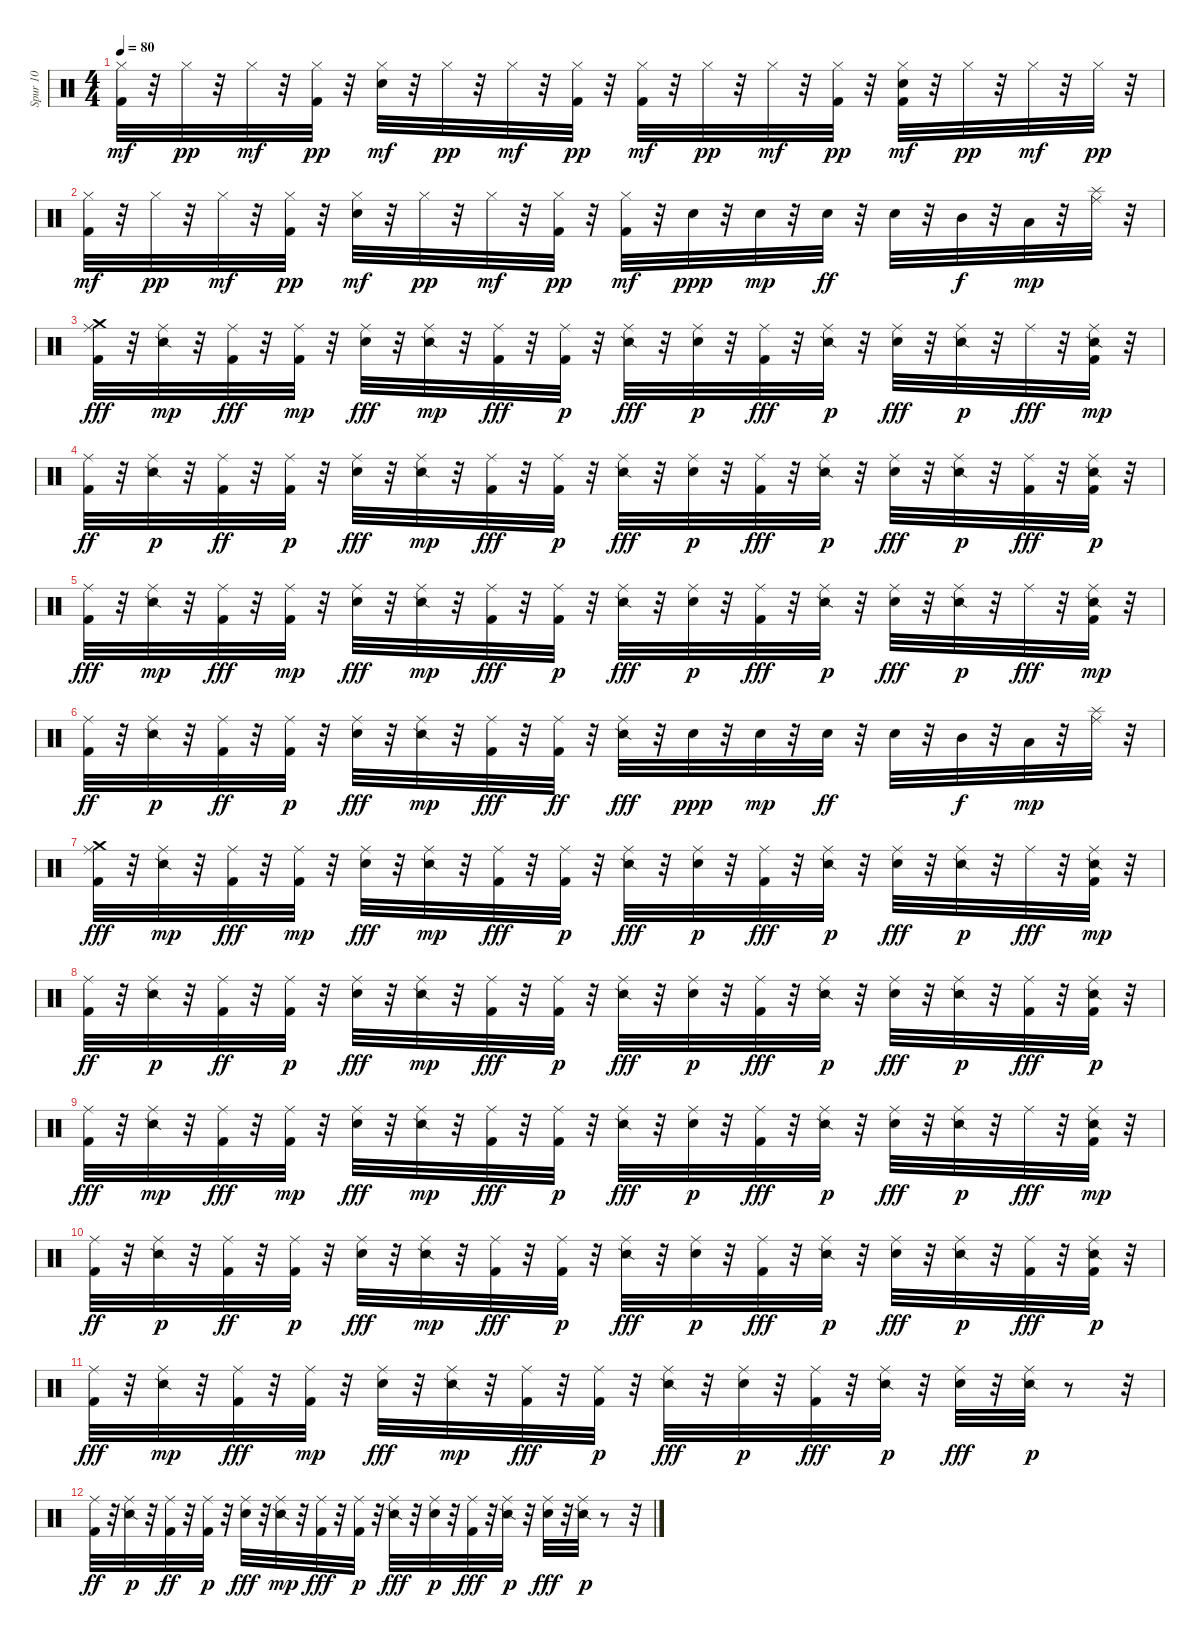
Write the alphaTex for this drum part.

\track ("Spur 10" "Spur 10") {instrument percussion}
\staff {score}
\articulation defaults
\ts (4 4)
\tempo 80
\clef neutral
\ks c
("Kick (hit) 2" "Hi-Hat (closed)").32{dy mf} r.32 "Hi-Hat (closed)".32{dy pp} r.32 "Hi-Hat (closed)".32{dy mf} r.32 ("Kick (hit) 2" "Hi-Hat (closed)").32{dy pp} r.32 ("Electric Snare (hit)" "Hi-Hat (closed)").32{dy mf} r.32 "Hi-Hat (closed)".32{dy pp} r.32 "Hi-Hat (closed)".32{dy mf} r.32 ("Kick (hit) 2" "Hi-Hat (closed)").32{dy pp} r.32 ("Kick (hit) 2" "Hi-Hat (closed)").32{dy mf} r.32 "Hi-Hat (closed)".32{dy pp} r.32 "Hi-Hat (closed)".32{dy mf} r.32 ("Kick (hit) 2" "Hi-Hat (closed)").32{dy pp} r.32 ("Kick (hit) 2" "Electric Snare (hit)" "Hi-Hat (closed)").32{dy mf} r.32 "Hi-Hat (closed)".32{dy pp} r.32 "Hi-Hat (closed)".32{dy mf} r.32 "Hi-Hat (closed)".32{dy pp} r.32 |
("Kick (hit) 2" "Hi-Hat (closed)").32{dy mf} r.32 "Hi-Hat (closed)".32{dy pp} r.32 "Hi-Hat (closed)".32{dy mf} r.32 ("Kick (hit) 2" "Hi-Hat (closed)").32{dy pp} r.32 ("Electric Snare (hit)" "Hi-Hat (closed)").32{dy mf} r.32 "Hi-Hat (closed)".32{dy pp} r.32 "Hi-Hat (closed)".32{dy mf} r.32 ("Kick (hit) 2" "Hi-Hat (closed)").32{dy pp} r.32 ("Kick (hit) 2" "Hi-Hat (closed)").32{dy mf} r.32 "Electric Snare (hit)".32{dy ppp} r.32 "Electric Snare (hit)".32{dy mp} r.32 "Electric Snare (hit)".32{dy ff} r.32 "Electric Snare (hit)".32 r.32 "Mid Tom (hit)".32{dy f} r.32 "Low Tom (hit)".32{dy mp} r.32 ("Ride (middle)" "Splash (hit)").32 r.32 |
("Crash medium (hit)" "Kick (hit) 2" "Ride (middle)").32{dy fff} r.32 ("Snare (side stick) 2" "Ride (middle)").32{dy mp} r.32 ("Kick (hit) 2" "Ride (middle)").32{dy fff} r.32 ("Kick (hit) 2" "Ride (middle)").32{dy mp} r.32 ("Electric Snare (hit)" "Ride (middle)").32{dy fff} r.32 ("Snare (side stick) 2" "Ride (middle)").32{dy mp} r.32 ("Kick (hit) 2" "Ride (middle)").32{dy fff} r.32 ("Kick (hit) 2" "Ride (middle)").32{dy p} r.32 ("Snare (side stick) 2" "Ride (middle)").32{dy fff} r.32 ("Electric Snare (hit)" "Ride (middle)").32{dy p} r.32 ("Kick (hit) 2" "Ride (middle)").32{dy fff} r.32 ("Snare (side stick) 2" "Ride (middle)").32{dy p} r.32 ("Electric Snare (hit)" "Ride (middle)").32{dy fff} r.32 ("Snare (side stick) 2" "Ride (middle)").32{dy p} r.32 "Ride (middle)".32{dy fff} r.32 ("Snare (side stick) 2" "Kick (hit) 2" "Ride (middle)").32{dy mp} r.32 |
("Kick (hit) 2" "Ride (middle)").32{dy ff} r.32 ("Snare (side stick) 2" "Ride (middle)").32{dy p} r.32 ("Kick (hit) 2" "Ride (middle)").32{dy ff} r.32 ("Kick (hit) 2" "Ride (middle)").32{dy p} r.32 ("Electric Snare (hit)" "Ride (middle)").32{dy fff} r.32 ("Snare (side stick) 2" "Ride (middle)").32{dy mp} r.32 ("Kick (hit) 2" "Ride (middle)").32{dy fff} r.32 ("Kick (hit) 2" "Ride (middle)").32{dy p} r.32 ("Snare (side stick) 2" "Ride (middle)").32{dy fff} r.32 ("Electric Snare (hit)" "Ride (middle)").32{dy p} r.32 ("Kick (hit) 2" "Ride (middle)").32{dy fff} r.32 ("Snare (side stick) 2" "Ride (middle)").32{dy p} r.32 ("Electric Snare (hit)" "Ride (middle)").32{dy fff} r.32 ("Snare (side stick) 2" "Ride (middle)").32{dy p} r.32 ("Kick (hit) 2" "Ride (middle)").32{dy fff} r.32 ("Snare (side stick) 2" "Kick (hit) 2" "Ride (middle)").32{dy p} r.32 |
("Kick (hit) 2" "Ride (middle)").32{dy fff} r.32 ("Snare (side stick) 2" "Ride (middle)").32{dy mp} r.32 ("Kick (hit) 2" "Ride (middle)").32{dy fff} r.32 ("Kick (hit) 2" "Ride (middle)").32{dy mp} r.32 ("Electric Snare (hit)" "Ride (middle)").32{dy fff} r.32 ("Snare (side stick) 2" "Ride (middle)").32{dy mp} r.32 ("Kick (hit) 2" "Ride (middle)").32{dy fff} r.32 ("Kick (hit) 2" "Ride (middle)").32{dy p} r.32 ("Snare (side stick) 2" "Ride (middle)").32{dy fff} r.32 ("Electric Snare (hit)" "Ride (middle)").32{dy p} r.32 ("Kick (hit) 2" "Ride (middle)").32{dy fff} r.32 ("Snare (side stick) 2" "Ride (middle)").32{dy p} r.32 ("Electric Snare (hit)" "Ride (middle)").32{dy fff} r.32 ("Snare (side stick) 2" "Ride (middle)").32{dy p} r.32 "Ride (middle)".32{dy fff} r.32 ("Snare (side stick) 2" "Kick (hit) 2" "Ride (middle)").32{dy mp} r.32 |
("Kick (hit) 2" "Ride (middle)").32{dy ff} r.32 ("Snare (side stick) 2" "Ride (middle)").32{dy p} r.32 ("Kick (hit) 2" "Ride (middle)").32{dy ff} r.32 ("Kick (hit) 2" "Ride (middle)").32{dy p} r.32 ("Electric Snare (hit)" "Ride (middle)").32{dy fff} r.32 ("Snare (side stick) 2" "Ride (middle)").32{dy mp} r.32 ("Kick (hit) 2" "Ride (middle)").32{dy fff} r.32 ("Kick (hit) 2" "Ride (middle)").32{dy ff} r.32 ("Snare (side stick) 2" "Ride (middle)").32{dy fff} r.32 "Electric Snare (hit)".32{dy ppp} r.32 "Electric Snare (hit)".32{dy mp} r.32 "Electric Snare (hit)".32{dy ff} r.32 "Electric Snare (hit)".32 r.32 "Mid Tom (hit)".32{dy f} r.32 "Low Tom (hit)".32{dy mp} r.32 ("Ride (middle)" "Splash (hit)").32 r.32 |
("Crash medium (hit)" "Kick (hit) 2" "Ride (middle)").32{dy fff} r.32 ("Snare (side stick) 2" "Ride (middle)").32{dy mp} r.32 ("Kick (hit) 2" "Ride (middle)").32{dy fff} r.32 ("Kick (hit) 2" "Ride (middle)").32{dy mp} r.32 ("Electric Snare (hit)" "Ride (middle)").32{dy fff} r.32 ("Snare (side stick) 2" "Ride (middle)").32{dy mp} r.32 ("Kick (hit) 2" "Ride (middle)").32{dy fff} r.32 ("Kick (hit) 2" "Ride (middle)").32{dy p} r.32 ("Snare (side stick) 2" "Ride (middle)").32{dy fff} r.32 ("Electric Snare (hit)" "Ride (middle)").32{dy p} r.32 ("Kick (hit) 2" "Ride (middle)").32{dy fff} r.32 ("Snare (side stick) 2" "Ride (middle)").32{dy p} r.32 ("Electric Snare (hit)" "Ride (middle)").32{dy fff} r.32 ("Snare (side stick) 2" "Ride (middle)").32{dy p} r.32 "Ride (middle)".32{dy fff} r.32 ("Snare (side stick) 2" "Kick (hit) 2" "Ride (middle)").32{dy mp} r.32 |
("Kick (hit) 2" "Ride (middle)").32{dy ff} r.32 ("Snare (side stick) 2" "Ride (middle)").32{dy p} r.32 ("Kick (hit) 2" "Ride (middle)").32{dy ff} r.32 ("Kick (hit) 2" "Ride (middle)").32{dy p} r.32 ("Electric Snare (hit)" "Ride (middle)").32{dy fff} r.32 ("Snare (side stick) 2" "Ride (middle)").32{dy mp} r.32 ("Kick (hit) 2" "Ride (middle)").32{dy fff} r.32 ("Kick (hit) 2" "Ride (middle)").32{dy p} r.32 ("Snare (side stick) 2" "Ride (middle)").32{dy fff} r.32 ("Electric Snare (hit)" "Ride (middle)").32{dy p} r.32 ("Kick (hit) 2" "Ride (middle)").32{dy fff} r.32 ("Snare (side stick) 2" "Ride (middle)").32{dy p} r.32 ("Electric Snare (hit)" "Ride (middle)").32{dy fff} r.32 ("Snare (side stick) 2" "Ride (middle)").32{dy p} r.32 ("Kick (hit) 2" "Ride (middle)").32{dy fff} r.32 ("Snare (side stick) 2" "Kick (hit) 2" "Ride (middle)").32{dy p} r.32 |
("Kick (hit) 2" "Ride (middle)").32{dy fff} r.32 ("Snare (side stick) 2" "Ride (middle)").32{dy mp} r.32 ("Kick (hit) 2" "Ride (middle)").32{dy fff} r.32 ("Kick (hit) 2" "Ride (middle)").32{dy mp} r.32 ("Electric Snare (hit)" "Ride (middle)").32{dy fff} r.32 ("Snare (side stick) 2" "Ride (middle)").32{dy mp} r.32 ("Kick (hit) 2" "Ride (middle)").32{dy fff} r.32 ("Kick (hit) 2" "Ride (middle)").32{dy p} r.32 ("Snare (side stick) 2" "Ride (middle)").32{dy fff} r.32 ("Electric Snare (hit)" "Ride (middle)").32{dy p} r.32 ("Kick (hit) 2" "Ride (middle)").32{dy fff} r.32 ("Snare (side stick) 2" "Ride (middle)").32{dy p} r.32 ("Electric Snare (hit)" "Ride (middle)").32{dy fff} r.32 ("Snare (side stick) 2" "Ride (middle)").32{dy p} r.32 "Ride (middle)".32{dy fff} r.32 ("Snare (side stick) 2" "Kick (hit) 2" "Ride (middle)").32{dy mp} r.32 |
("Kick (hit) 2" "Ride (middle)").32{dy ff} r.32 ("Snare (side stick) 2" "Ride (middle)").32{dy p} r.32 ("Kick (hit) 2" "Ride (middle)").32{dy ff} r.32 ("Kick (hit) 2" "Ride (middle)").32{dy p} r.32 ("Electric Snare (hit)" "Ride (middle)").32{dy fff} r.32 ("Snare (side stick) 2" "Ride (middle)").32{dy mp} r.32 ("Kick (hit) 2" "Ride (middle)").32{dy fff} r.32 ("Kick (hit) 2" "Ride (middle)").32{dy p} r.32 ("Snare (side stick) 2" "Ride (middle)").32{dy fff} r.32 ("Electric Snare (hit)" "Ride (middle)").32{dy p} r.32 ("Kick (hit) 2" "Ride (middle)").32{dy fff} r.32 ("Snare (side stick) 2" "Ride (middle)").32{dy p} r.32 ("Electric Snare (hit)" "Ride (middle)").32{dy fff} r.32 ("Snare (side stick) 2" "Ride (middle)").32{dy p} r.32 ("Kick (hit) 2" "Ride (middle)").32{dy fff} r.32 ("Snare (side stick) 2" "Kick (hit) 2" "Ride (middle)").32{dy p} r.32 |
("Kick (hit) 2" "Ride (middle)").32{dy fff} r.32 ("Snare (side stick) 2" "Ride (middle)").32{dy mp} r.32 ("Kick (hit) 2" "Ride (middle)").32{dy fff} r.32 ("Kick (hit) 2" "Ride (middle)").32{dy mp} r.32 ("Electric Snare (hit)" "Ride (middle)").32{dy fff} r.32 ("Snare (side stick) 2" "Ride (middle)").32{dy mp} r.32 ("Kick (hit) 2" "Ride (middle)").32{dy fff} r.32 ("Kick (hit) 2" "Ride (middle)").32{dy p} r.32 ("Snare (side stick) 2" "Ride (middle)").32{dy fff} r.32 ("Electric Snare (hit)" "Ride (middle)").32{dy p} r.32 ("Kick (hit) 2" "Ride (middle)").32{dy fff} r.32 ("Snare (side stick) 2" "Ride (middle)").32{dy p} r.32 ("Electric Snare (hit)" "Ride (middle)").32{dy fff} r.32 ("Snare (side stick) 2" "Ride (middle)").32{dy p} r.8 r.32 |
("Kick (hit) 2" "Ride (middle)").32{dy ff} r.32 ("Snare (side stick) 2" "Ride (middle)").32{dy p} r.32 ("Kick (hit) 2" "Ride (middle)").32{dy ff} r.32 ("Kick (hit) 2" "Ride (middle)").32{dy p} r.32 ("Electric Snare (hit)" "Ride (middle)").32{dy fff} r.32 ("Snare (side stick) 2" "Ride (middle)").32{dy mp} r.32 ("Kick (hit) 2" "Ride (middle)").32{dy fff} r.32 ("Kick (hit) 2" "Ride (middle)").32{dy p} r.32 ("Snare (side stick) 2" "Ride (middle)").32{dy fff} r.32 ("Electric Snare (hit)" "Ride (middle)").32{dy p} r.32 ("Kick (hit) 2" "Ride (middle)").32{dy fff} r.32 ("Snare (side stick) 2" "Ride (middle)").32{dy p} r.32 ("Electric Snare (hit)" "Ride (middle)").32{dy fff} r.32 ("Snare (side stick) 2" "Ride (middle)").32{dy p} r.8 r.32
